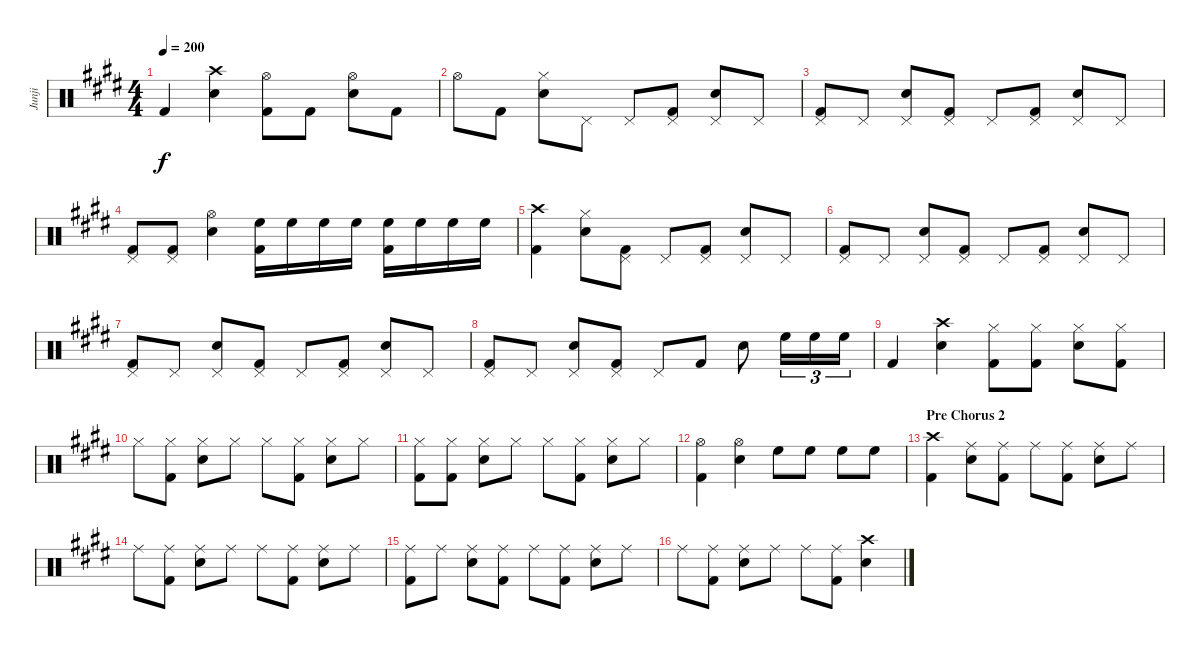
\track ("Junji" "Junji") {instrument percussion}
\staff {score}
\articulation defaults
\ts (4 4)
\tempo 200
\clef neutral
\ks e "Kick (hit) 2".4{dy f}
("Crash high (hit)" "Snare (hit) 2").4 ("Hi-Hat (open)" "Kick (hit) 2").8 "Kick (hit) 2".8 ("Hi-Hat (open)" "Snare (hit) 2").8 "Kick (hit) 2".8 |
"Hi-Hat (open)".8 "Kick (hit) 2".8 ("Hi-Hat (closed)" "Snare (hit) 2").8 "Pedal Hi-Hat (hit)".8 "Pedal Hi-Hat (hit)".8 ("Pedal Hi-Hat (hit)" "Kick (hit) 2").8 ("Pedal Hi-Hat (hit)" "Snare (hit) 2").8 "Pedal Hi-Hat (hit)".8 |
("Pedal Hi-Hat (hit)" "Kick (hit) 2").8 "Pedal Hi-Hat (hit)".8 ("Pedal Hi-Hat (hit)" "Snare (hit) 2").8 ("Pedal Hi-Hat (hit)" "Kick (hit) 2").8 "Pedal Hi-Hat (hit)".8 ("Pedal Hi-Hat (hit)" "Kick (hit) 2").8 ("Pedal Hi-Hat (hit)" "Snare (hit) 2").8 "Pedal Hi-Hat (hit)".8 |
("Pedal Hi-Hat (hit)" "Kick (hit) 2").8 ("Pedal Hi-Hat (hit)" "Kick (hit) 2").8 ("Hi-Hat (open)" "Snare (hit) 2").4 ("High Floor Tom (hit)" "Kick (hit) 2").16 "High Floor Tom (hit)".16 "High Floor Tom (hit)".16 "High Floor Tom (hit)".16 ("High Floor Tom (hit)" "Kick (hit) 2").16 "High Floor Tom (hit)".16 "High Floor Tom (hit)".16 "High Floor Tom (hit)".16 |
("Crash high (hit)" "Kick (hit) 2").4 ("Hi-Hat (closed)" "Snare (hit) 2").8 ("Pedal Hi-Hat (hit)" "Kick (hit) 2").8 "Pedal Hi-Hat (hit)".8 ("Pedal Hi-Hat (hit)" "Kick (hit) 2").8 ("Pedal Hi-Hat (hit)" "Snare (hit) 2").8 "Pedal Hi-Hat (hit)".8 |
("Pedal Hi-Hat (hit)" "Kick (hit) 2").8 "Pedal Hi-Hat (hit)".8 ("Pedal Hi-Hat (hit)" "Snare (hit) 2").8 ("Pedal Hi-Hat (hit)" "Kick (hit) 2").8 "Pedal Hi-Hat (hit)".8 ("Pedal Hi-Hat (hit)" "Kick (hit) 2").8 ("Pedal Hi-Hat (hit)" "Snare (hit) 2").8 "Pedal Hi-Hat (hit)".8 |
("Pedal Hi-Hat (hit)" "Kick (hit) 2").8 "Pedal Hi-Hat (hit)".8 ("Pedal Hi-Hat (hit)" "Snare (hit) 2").8 ("Pedal Hi-Hat (hit)" "Kick (hit) 2").8 "Pedal Hi-Hat (hit)".8 ("Pedal Hi-Hat (hit)" "Kick (hit) 2").8 ("Pedal Hi-Hat (hit)" "Snare (hit) 2").8 "Pedal Hi-Hat (hit)".8 |
("Pedal Hi-Hat (hit)" "Kick (hit) 2").8 "Pedal Hi-Hat (hit)".8 ("Pedal Hi-Hat (hit)" "Snare (hit) 2").8 ("Pedal Hi-Hat (hit)" "Kick (hit) 2").8 "Pedal Hi-Hat (hit)".8 "Kick (hit) 2".8 "Snare (hit) 2".8 "High Floor Tom (hit)".16{tu (3 2)} "High Floor Tom (hit)".16{tu (3 2)} "High Floor Tom (hit)".16{tu (3 2)} |
"Kick (hit) 2".4 ("Crash high (hit)" "Snare (hit) 2").4 ("Hi-Hat (closed)" "Kick (hit) 2").8 ("Hi-Hat (closed)" "Kick (hit) 2").8 ("Hi-Hat (closed)" "Snare (hit) 2").8 ("Hi-Hat (closed)" "Kick (hit) 2").8 |
"Hi-Hat (closed)".8 ("Hi-Hat (closed)" "Kick (hit) 2").8 ("Hi-Hat (closed)" "Snare (hit) 2").8 "Hi-Hat (closed)".8 "Hi-Hat (closed)".8 ("Hi-Hat (closed)" "Kick (hit) 2").8 ("Hi-Hat (closed)" "Snare (hit) 2").8 "Hi-Hat (closed)".8 |
("Hi-Hat (closed)" "Kick (hit) 2").8 ("Hi-Hat (closed)" "Kick (hit) 2").8 ("Hi-Hat (closed)" "Snare (hit) 2").8 "Hi-Hat (closed)".8 "Hi-Hat (closed)".8 ("Hi-Hat (closed)" "Kick (hit) 2").8 ("Hi-Hat (closed)" "Snare (hit) 2").8 "Hi-Hat (closed)".8 |
("Hi-Hat (open)" "Kick (hit) 2").4 ("Hi-Hat (open)" "Snare (hit) 2").4 "High Floor Tom (hit)".8 "High Floor Tom (hit)".8 "High Floor Tom (hit)".8 "High Floor Tom (hit)".8 |
\section ("" "Pre Chorus 2")
("Crash high (hit)" "Kick (hit) 2").4 ("Ride (middle)" "Snare (hit) 2").8 ("Ride (middle)" "Kick (hit) 2").8 "Ride (middle)".8 ("Ride (middle)" "Kick (hit) 2").8 ("Ride (middle)" "Snare (hit) 2").8 "Ride (middle)".8 |
"Ride (middle)".8 ("Ride (middle)" "Kick (hit) 2").8 ("Ride (middle)" "Snare (hit) 2").8 "Ride (middle)".8 "Ride (middle)".8 ("Ride (middle)" "Kick (hit) 2").8 ("Ride (middle)" "Snare (hit) 2").8 "Ride (middle)".8 |
("Ride (middle)" "Kick (hit) 2").8 "Ride (middle)".8 ("Ride (middle)" "Snare (hit) 2").8 ("Ride (middle)" "Kick (hit) 2").8 "Ride (middle)".8 ("Ride (middle)" "Kick (hit) 2").8 ("Ride (middle)" "Snare (hit) 2").8 "Ride (middle)".8 |
"Ride (middle)".8 ("Ride (middle)" "Kick (hit) 2").8 ("Ride (middle)" "Snare (hit) 2").8 "Ride (middle)".8 "Ride (middle)".8 ("Ride (middle)" "Kick (hit) 2").8 ("Crash high (hit)" "Snare (hit) 2").4
